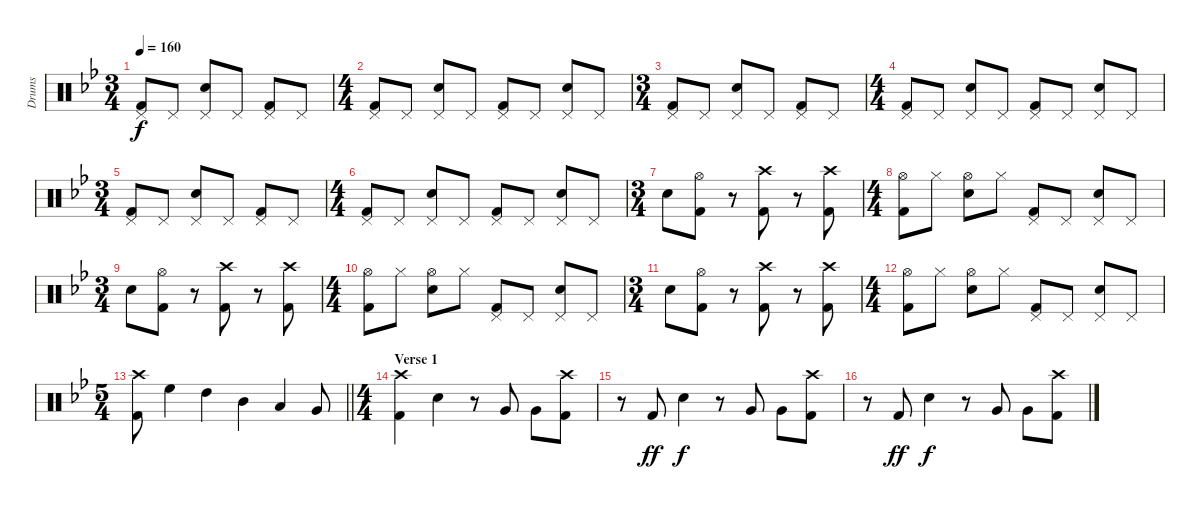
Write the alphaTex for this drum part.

\track ("Drums" "Drums") {instrument percussion}
\staff {score}
\articulation defaults
\ts (3 4)
\tempo 160
\clef neutral
\ks bb
("Pedal Hi-Hat (hit)" "Kick (hit) 2").8{dy f} "Pedal Hi-Hat (hit)".8 ("Pedal Hi-Hat (hit)" "Electric Snare (hit)").8 "Pedal Hi-Hat (hit)".8 ("Pedal Hi-Hat (hit)" "Kick (hit) 2").8 "Pedal Hi-Hat (hit)".8 |
\ts (4 4)
("Pedal Hi-Hat (hit)" "Kick (hit) 2").8 "Pedal Hi-Hat (hit)".8 ("Pedal Hi-Hat (hit)" "Electric Snare (hit)").8 "Pedal Hi-Hat (hit)".8 ("Pedal Hi-Hat (hit)" "Kick (hit) 2").8 "Pedal Hi-Hat (hit)".8 ("Pedal Hi-Hat (hit)" "Electric Snare (hit)").8 "Pedal Hi-Hat (hit)".8 |
\ts (3 4)
("Pedal Hi-Hat (hit)" "Kick (hit) 2").8 "Pedal Hi-Hat (hit)".8 ("Pedal Hi-Hat (hit)" "Electric Snare (hit)").8 "Pedal Hi-Hat (hit)".8 ("Pedal Hi-Hat (hit)" "Kick (hit) 2").8 "Pedal Hi-Hat (hit)".8 |
\ts (4 4)
("Pedal Hi-Hat (hit)" "Kick (hit) 2").8 "Pedal Hi-Hat (hit)".8 ("Pedal Hi-Hat (hit)" "Electric Snare (hit)").8 "Pedal Hi-Hat (hit)".8 ("Pedal Hi-Hat (hit)" "Kick (hit) 2").8 "Pedal Hi-Hat (hit)".8 ("Pedal Hi-Hat (hit)" "Electric Snare (hit)").8 "Pedal Hi-Hat (hit)".8 |
\ts (3 4)
("Pedal Hi-Hat (hit)" "Kick (hit) 2").8 "Pedal Hi-Hat (hit)".8 ("Pedal Hi-Hat (hit)" "Electric Snare (hit)").8 "Pedal Hi-Hat (hit)".8 ("Pedal Hi-Hat (hit)" "Kick (hit) 2").8 "Pedal Hi-Hat (hit)".8 |
\ts (4 4)
("Pedal Hi-Hat (hit)" "Kick (hit) 2").8 "Pedal Hi-Hat (hit)".8 ("Pedal Hi-Hat (hit)" "Electric Snare (hit)").8 "Pedal Hi-Hat (hit)".8 ("Pedal Hi-Hat (hit)" "Kick (hit) 2").8 "Pedal Hi-Hat (hit)".8 ("Pedal Hi-Hat (hit)" "Electric Snare (hit)").8 "Pedal Hi-Hat (hit)".8 |
\ts (3 4)
"Electric Snare (hit)".8 ("Hi-Hat (open)" "Kick (hit) 2").8 r.8 ("Crash high (hit)" "Kick (hit) 2").8 r.8 ("Crash high (hit)" "Kick (hit) 2").8 |
\ts (4 4)
("Hi-Hat (open)" "Kick (hit) 2").8 "Hi-Hat (closed)".8 ("Hi-Hat (open)" "Electric Snare (hit)").8 "Hi-Hat (closed)".8 ("Pedal Hi-Hat (hit)" "Kick (hit) 2").8 "Pedal Hi-Hat (hit)".8 ("Pedal Hi-Hat (hit)" "Electric Snare (hit)").8 "Pedal Hi-Hat (hit)".8 |
\ts (3 4)
"Electric Snare (hit)".8 ("Hi-Hat (open)" "Kick (hit) 2").8 r.8 ("Crash high (hit)" "Kick (hit) 2").8 r.8 ("Crash high (hit)" "Kick (hit) 2").8 |
\ts (4 4)
("Hi-Hat (open)" "Kick (hit) 2").8 "Hi-Hat (closed)".8 ("Hi-Hat (open)" "Electric Snare (hit)").8 "Hi-Hat (closed)".8 ("Pedal Hi-Hat (hit)" "Kick (hit) 2").8 "Pedal Hi-Hat (hit)".8 ("Pedal Hi-Hat (hit)" "Electric Snare (hit)").8 "Pedal Hi-Hat (hit)".8 |
\ts (3 4)
"Electric Snare (hit)".8 ("Hi-Hat (open)" "Kick (hit) 2").8 r.8 ("Crash high (hit)" "Kick (hit) 2").8 r.8 ("Crash high (hit)" "Kick (hit) 2").8 |
\ts (4 4)
("Hi-Hat (open)" "Kick (hit) 2").8 "Hi-Hat (closed)".8 ("Hi-Hat (open)" "Electric Snare (hit)").8 "Hi-Hat (closed)".8 ("Pedal Hi-Hat (hit)" "Kick (hit) 2").8 "Pedal Hi-Hat (hit)".8 ("Pedal Hi-Hat (hit)" "Electric Snare (hit)").8 "Pedal Hi-Hat (hit)".8 |
\ts (5 4)
\barLineRight lightlight
("Crash high (hit)" "Kick (hit) 2").8 "High Floor Tom (hit)".4 "High Tom (hit)".4 "Mid Tom (hit)".4 "Low Tom (hit)".4 "Very Low Tom (hit)".8 |
\ts (4 4)
\section ("" "Verse 1")
("Crash high (hit)" "Kick (hit) 2").4 "Electric Snare (hit)".4 r.8 "Very Low Tom (hit)".8 "Very Low Tom (hit)".8 ("Crash high (hit)" "Kick (hit) 2").8 |
r.8 "Kick (hit) 2".8{dy ff} "Electric Snare (hit)".4{dy f} r.8 "Very Low Tom (hit)".8 "Very Low Tom (hit)".8 ("Crash high (hit)" "Kick (hit) 2").8 |
r.8 "Kick (hit) 2".8{dy ff} "Electric Snare (hit)".4{dy f} r.8 "Very Low Tom (hit)".8 "Very Low Tom (hit)".8 ("Crash high (hit)" "Kick (hit) 2").8
